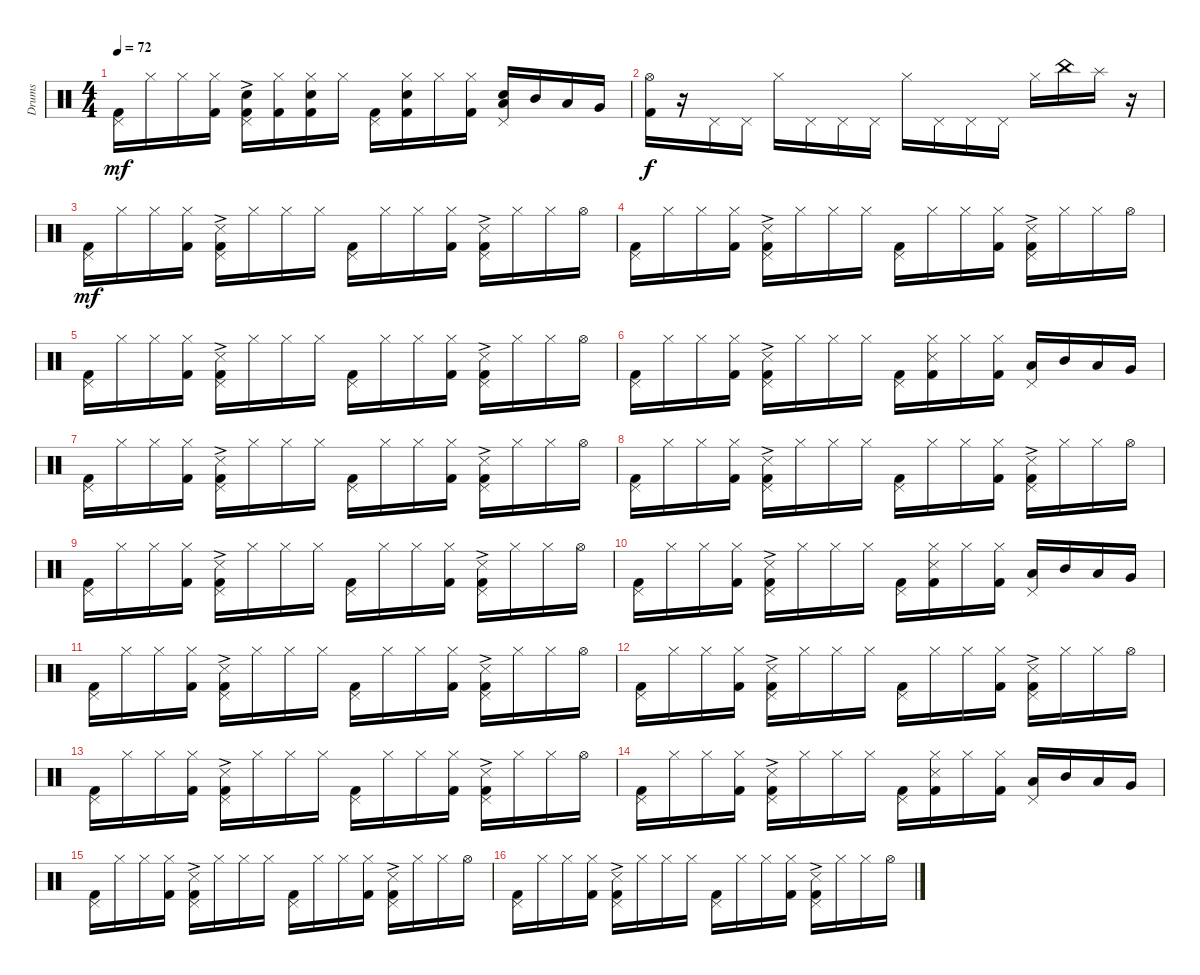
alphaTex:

\track ("Drums" "Drums") {instrument percussion}
\staff {score}
\articulation defaults
\ts (4 4)
\tempo 72
\clef neutral
\ks c
("Pedal Hi-Hat (hit)" "Kick (hit) 2").16{dy mf} "Hi-Hat (closed)".16 "Hi-Hat (closed)".16 ("Hi-Hat (closed)" "Kick (hit) 2").16 ("Pedal Hi-Hat (hit)" "Electric Snare (hit)"{ac} "Kick (hit) 2").16 ("Hi-Hat (closed)" "Kick (hit) 2").16 ("Hi-Hat (closed)" "Electric Snare (hit)" "Kick (hit) 2").16 "Hi-Hat (closed)".16 ("Pedal Hi-Hat (hit)" "Kick (hit) 2").16 ("Hi-Hat (closed)" "Electric Snare (hit)" "Kick (hit) 2").16 "Hi-Hat (closed)".16 ("Hi-Hat (closed)" "Kick (hit) 2").16 ("Pedal Hi-Hat (hit)" "Electric Snare (hit)" "Low Tom (hit)").16 "Mid Tom (hit)".16 "Low Tom (hit)".16 "Very Low Tom (hit)".16 |
("Kick (hit) 2" "Hi-Hat (open)").16{dy f} r.16 "Pedal Hi-Hat (hit)".16 "Pedal Hi-Hat (hit)".16 "Hi-Hat (closed)".16 "Pedal Hi-Hat (hit)".16 "Pedal Hi-Hat (hit)".16 "Pedal Hi-Hat (hit)".16 "Hi-Hat (closed)".16 "Pedal Hi-Hat (hit)".16 "Pedal Hi-Hat (hit)".16 "Pedal Hi-Hat (hit)".16 "Hi-Hat (closed)".16 "China (hit)".16 "Splash (hit)".16 r.16 |
("Pedal Hi-Hat (hit)" "Kick (hit) 2").16{dy mf} "Hi-Hat (closed)".16 "Hi-Hat (closed)".16 ("Hi-Hat (closed)" "Kick (hit) 2").16 ("Pedal Hi-Hat (hit)" "Snare (side stick) 3"{ac} "Kick (hit) 2").16 "Hi-Hat (closed)".16 "Hi-Hat (closed)".16 "Hi-Hat (closed)".16 ("Pedal Hi-Hat (hit)" "Kick (hit) 2").16 "Hi-Hat (closed)".16 "Hi-Hat (closed)".16 ("Hi-Hat (closed)" "Kick (hit) 2").16 ("Pedal Hi-Hat (hit)" "Snare (side stick) 3"{ac} "Kick (hit) 2").16 "Hi-Hat (closed)".16 "Hi-Hat (closed)".16 "Hi-Hat (open)".16 |
("Pedal Hi-Hat (hit)" "Kick (hit) 2").16 "Hi-Hat (closed)".16 "Hi-Hat (closed)".16 ("Hi-Hat (closed)" "Kick (hit) 2").16 ("Pedal Hi-Hat (hit)" "Snare (side stick) 3"{ac} "Kick (hit) 2").16 "Hi-Hat (closed)".16 "Hi-Hat (closed)".16 "Hi-Hat (closed)".16 ("Pedal Hi-Hat (hit)" "Kick (hit) 2").16 "Hi-Hat (closed)".16 "Hi-Hat (closed)".16 ("Hi-Hat (closed)" "Kick (hit) 2").16 ("Pedal Hi-Hat (hit)" "Snare (side stick) 3"{ac} "Kick (hit) 2").16 "Hi-Hat (closed)".16 "Hi-Hat (closed)".16 "Hi-Hat (open)".16 |
("Pedal Hi-Hat (hit)" "Kick (hit) 2").16 "Hi-Hat (closed)".16 "Hi-Hat (closed)".16 ("Hi-Hat (closed)" "Kick (hit) 2").16 ("Pedal Hi-Hat (hit)" "Snare (side stick) 3"{ac} "Kick (hit) 2").16 "Hi-Hat (closed)".16 "Hi-Hat (closed)".16 "Hi-Hat (closed)".16 ("Pedal Hi-Hat (hit)" "Kick (hit) 2").16 "Hi-Hat (closed)".16 "Hi-Hat (closed)".16 ("Hi-Hat (closed)" "Kick (hit) 2").16 ("Pedal Hi-Hat (hit)" "Snare (side stick) 3"{ac} "Kick (hit) 2").16 "Hi-Hat (closed)".16 "Hi-Hat (closed)".16 "Hi-Hat (open)".16 |
("Pedal Hi-Hat (hit)" "Kick (hit) 2").16 "Hi-Hat (closed)".16 "Hi-Hat (closed)".16 ("Hi-Hat (closed)" "Kick (hit) 2").16 ("Pedal Hi-Hat (hit)" "Snare (side stick) 3"{ac} "Kick (hit) 2").16 "Hi-Hat (closed)".16 "Hi-Hat (closed)".16 "Hi-Hat (closed)".16 ("Pedal Hi-Hat (hit)" "Kick (hit) 2").16 ("Hi-Hat (closed)" "Snare (side stick) 3" "Kick (hit) 2").16 "Hi-Hat (closed)".16 ("Hi-Hat (closed)" "Kick (hit) 2").16 ("Pedal Hi-Hat (hit)" "Low Tom (hit)").16 "Mid Tom (hit)".16 "Low Tom (hit)".16 "Very Low Tom (hit)".16 |
("Pedal Hi-Hat (hit)" "Kick (hit) 2").16 "Hi-Hat (closed)".16 "Hi-Hat (closed)".16 ("Hi-Hat (closed)" "Kick (hit) 2").16 ("Pedal Hi-Hat (hit)" "Snare (side stick) 3"{ac} "Kick (hit) 2").16 "Hi-Hat (closed)".16 "Hi-Hat (closed)".16 "Hi-Hat (closed)".16 ("Pedal Hi-Hat (hit)" "Kick (hit) 2").16 "Hi-Hat (closed)".16 "Hi-Hat (closed)".16 ("Hi-Hat (closed)" "Kick (hit) 2").16 ("Pedal Hi-Hat (hit)" "Snare (side stick) 3"{ac} "Kick (hit) 2").16 "Hi-Hat (closed)".16 "Hi-Hat (closed)".16 "Hi-Hat (open)".16 |
("Pedal Hi-Hat (hit)" "Kick (hit) 2").16 "Hi-Hat (closed)".16 "Hi-Hat (closed)".16 ("Hi-Hat (closed)" "Kick (hit) 2").16 ("Pedal Hi-Hat (hit)" "Snare (side stick) 3"{ac} "Kick (hit) 2").16 "Hi-Hat (closed)".16 "Hi-Hat (closed)".16 "Hi-Hat (closed)".16 ("Pedal Hi-Hat (hit)" "Kick (hit) 2").16 "Hi-Hat (closed)".16 "Hi-Hat (closed)".16 ("Hi-Hat (closed)" "Kick (hit) 2").16 ("Pedal Hi-Hat (hit)" "Snare (side stick) 3"{ac} "Kick (hit) 2").16 "Hi-Hat (closed)".16 "Hi-Hat (closed)".16 "Hi-Hat (open)".16 |
("Pedal Hi-Hat (hit)" "Kick (hit) 2").16 "Hi-Hat (closed)".16 "Hi-Hat (closed)".16 ("Hi-Hat (closed)" "Kick (hit) 2").16 ("Pedal Hi-Hat (hit)" "Snare (side stick) 3"{ac} "Kick (hit) 2").16 "Hi-Hat (closed)".16 "Hi-Hat (closed)".16 "Hi-Hat (closed)".16 ("Pedal Hi-Hat (hit)" "Kick (hit) 2").16 "Hi-Hat (closed)".16 "Hi-Hat (closed)".16 ("Hi-Hat (closed)" "Kick (hit) 2").16 ("Pedal Hi-Hat (hit)" "Snare (side stick) 3"{ac} "Kick (hit) 2").16 "Hi-Hat (closed)".16 "Hi-Hat (closed)".16 "Hi-Hat (open)".16 |
("Pedal Hi-Hat (hit)" "Kick (hit) 2").16 "Hi-Hat (closed)".16 "Hi-Hat (closed)".16 ("Hi-Hat (closed)" "Kick (hit) 2").16 ("Pedal Hi-Hat (hit)" "Snare (side stick) 3"{ac} "Kick (hit) 2").16 "Hi-Hat (closed)".16 "Hi-Hat (closed)".16 "Hi-Hat (closed)".16 ("Pedal Hi-Hat (hit)" "Kick (hit) 2").16 ("Hi-Hat (closed)" "Snare (side stick) 3" "Kick (hit) 2").16 "Hi-Hat (closed)".16 ("Hi-Hat (closed)" "Kick (hit) 2").16 ("Pedal Hi-Hat (hit)" "Low Tom (hit)").16 "Mid Tom (hit)".16 "Low Tom (hit)".16 "Very Low Tom (hit)".16 |
("Pedal Hi-Hat (hit)" "Kick (hit) 2").16 "Hi-Hat (closed)".16 "Hi-Hat (closed)".16 ("Hi-Hat (closed)" "Kick (hit) 2").16 ("Pedal Hi-Hat (hit)" "Snare (side stick) 3"{ac} "Kick (hit) 2").16 "Hi-Hat (closed)".16 "Hi-Hat (closed)".16 "Hi-Hat (closed)".16 ("Pedal Hi-Hat (hit)" "Kick (hit) 2").16 "Hi-Hat (closed)".16 "Hi-Hat (closed)".16 ("Hi-Hat (closed)" "Kick (hit) 2").16 ("Pedal Hi-Hat (hit)" "Snare (side stick) 3"{ac} "Kick (hit) 2").16 "Hi-Hat (closed)".16 "Hi-Hat (closed)".16 "Hi-Hat (open)".16 |
("Pedal Hi-Hat (hit)" "Kick (hit) 2").16 "Hi-Hat (closed)".16 "Hi-Hat (closed)".16 ("Hi-Hat (closed)" "Kick (hit) 2").16 ("Pedal Hi-Hat (hit)" "Snare (side stick) 3"{ac} "Kick (hit) 2").16 "Hi-Hat (closed)".16 "Hi-Hat (closed)".16 "Hi-Hat (closed)".16 ("Pedal Hi-Hat (hit)" "Kick (hit) 2").16 "Hi-Hat (closed)".16 "Hi-Hat (closed)".16 ("Hi-Hat (closed)" "Kick (hit) 2").16 ("Pedal Hi-Hat (hit)" "Snare (side stick) 3"{ac} "Kick (hit) 2").16 "Hi-Hat (closed)".16 "Hi-Hat (closed)".16 "Hi-Hat (open)".16 |
("Pedal Hi-Hat (hit)" "Kick (hit) 2").16 "Hi-Hat (closed)".16 "Hi-Hat (closed)".16 ("Hi-Hat (closed)" "Kick (hit) 2").16 ("Pedal Hi-Hat (hit)" "Snare (side stick) 3"{ac} "Kick (hit) 2").16 "Hi-Hat (closed)".16 "Hi-Hat (closed)".16 "Hi-Hat (closed)".16 ("Pedal Hi-Hat (hit)" "Kick (hit) 2").16 "Hi-Hat (closed)".16 "Hi-Hat (closed)".16 ("Hi-Hat (closed)" "Kick (hit) 2").16 ("Pedal Hi-Hat (hit)" "Snare (side stick) 3"{ac} "Kick (hit) 2").16 "Hi-Hat (closed)".16 "Hi-Hat (closed)".16 "Hi-Hat (open)".16 |
("Pedal Hi-Hat (hit)" "Kick (hit) 2").16 "Hi-Hat (closed)".16 "Hi-Hat (closed)".16 ("Hi-Hat (closed)" "Kick (hit) 2").16 ("Pedal Hi-Hat (hit)" "Snare (side stick) 3"{ac} "Kick (hit) 2").16 "Hi-Hat (closed)".16 "Hi-Hat (closed)".16 "Hi-Hat (closed)".16 ("Pedal Hi-Hat (hit)" "Kick (hit) 2").16 ("Hi-Hat (closed)" "Snare (side stick) 3" "Kick (hit) 2").16 "Hi-Hat (closed)".16 ("Hi-Hat (closed)" "Kick (hit) 2").16 ("Pedal Hi-Hat (hit)" "Low Tom (hit)").16 "Mid Tom (hit)".16 "Low Tom (hit)".16 "Very Low Tom (hit)".16 |
("Pedal Hi-Hat (hit)" "Kick (hit) 2").16 "Hi-Hat (closed)".16 "Hi-Hat (closed)".16 ("Hi-Hat (closed)" "Kick (hit) 2").16 ("Pedal Hi-Hat (hit)" "Snare (side stick) 3"{ac} "Kick (hit) 2").16 "Hi-Hat (closed)".16 "Hi-Hat (closed)".16 "Hi-Hat (closed)".16 ("Pedal Hi-Hat (hit)" "Kick (hit) 2").16 "Hi-Hat (closed)".16 "Hi-Hat (closed)".16 ("Hi-Hat (closed)" "Kick (hit) 2").16 ("Pedal Hi-Hat (hit)" "Snare (side stick) 3"{ac} "Kick (hit) 2").16 "Hi-Hat (closed)".16 "Hi-Hat (closed)".16 "Hi-Hat (open)".16 |
("Pedal Hi-Hat (hit)" "Kick (hit) 2").16 "Hi-Hat (closed)".16 "Hi-Hat (closed)".16 ("Hi-Hat (closed)" "Kick (hit) 2").16 ("Pedal Hi-Hat (hit)" "Snare (side stick) 3"{ac} "Kick (hit) 2").16 "Hi-Hat (closed)".16 "Hi-Hat (closed)".16 "Hi-Hat (closed)".16 ("Pedal Hi-Hat (hit)" "Kick (hit) 2").16 "Hi-Hat (closed)".16 "Hi-Hat (closed)".16 ("Hi-Hat (closed)" "Kick (hit) 2").16 ("Pedal Hi-Hat (hit)" "Snare (side stick) 3"{ac} "Kick (hit) 2").16 "Hi-Hat (closed)".16 "Hi-Hat (closed)".16 "Hi-Hat (open)".16
